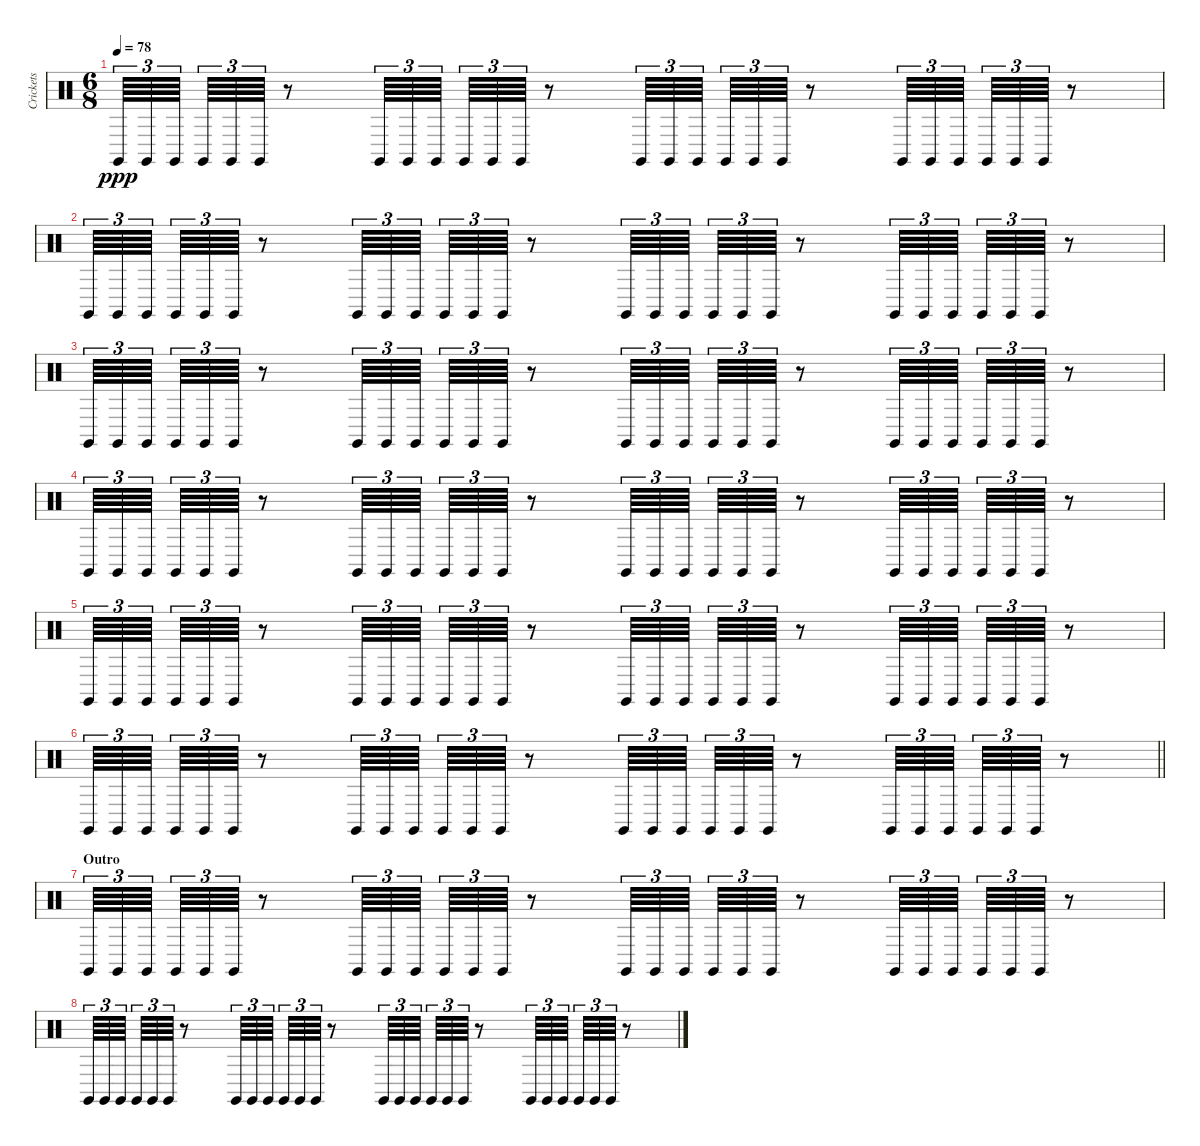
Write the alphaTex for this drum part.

\track ("Crickets" "Crickets") {instrument percussion}
\staff {score}
\articulation defaults
\ts (6 8)
\tempo 78
\clef neutral
\ks c "Claves (hit)".64{tu (3 2) dy ppp} "Claves (hit)".64{tu (3 2)} "Claves (hit)".64{tu (3 2) beam splitsecondary} "Claves (hit)".64{tu (3 2)} "Claves (hit)".64{tu (3 2)} "Claves (hit)".64{tu (3 2)}
r.8 "Claves (hit)".64{tu (3 2)} "Claves (hit)".64{tu (3 2)} "Claves (hit)".64{tu (3 2) beam splitsecondary} "Claves (hit)".64{tu (3 2)} "Claves (hit)".64{tu (3 2)} "Claves (hit)".64{tu (3 2)} r.8 "Claves (hit)".64{tu (3 2)} "Claves (hit)".64{tu (3 2)} "Claves (hit)".64{tu (3 2) beam splitsecondary} "Claves (hit)".64{tu (3 2)} "Claves (hit)".64{tu (3 2)} "Claves (hit)".64{tu (3 2)} r.8 "Claves (hit)".64{tu (3 2)} "Claves (hit)".64{tu (3 2)} "Claves (hit)".64{tu (3 2) beam splitsecondary} "Claves (hit)".64{tu (3 2)} "Claves (hit)".64{tu (3 2)} "Claves (hit)".64{tu (3 2)} r.8 |
"Claves (hit)".64{tu (3 2)} "Claves (hit)".64{tu (3 2)} "Claves (hit)".64{tu (3 2) beam splitsecondary} "Claves (hit)".64{tu (3 2)} "Claves (hit)".64{tu (3 2)} "Claves (hit)".64{tu (3 2)} r.8 "Claves (hit)".64{tu (3 2)} "Claves (hit)".64{tu (3 2)} "Claves (hit)".64{tu (3 2) beam splitsecondary} "Claves (hit)".64{tu (3 2)} "Claves (hit)".64{tu (3 2)} "Claves (hit)".64{tu (3 2)} r.8 "Claves (hit)".64{tu (3 2)} "Claves (hit)".64{tu (3 2)} "Claves (hit)".64{tu (3 2) beam splitsecondary} "Claves (hit)".64{tu (3 2)} "Claves (hit)".64{tu (3 2)} "Claves (hit)".64{tu (3 2)} r.8 "Claves (hit)".64{tu (3 2)} "Claves (hit)".64{tu (3 2)} "Claves (hit)".64{tu (3 2) beam splitsecondary} "Claves (hit)".64{tu (3 2)} "Claves (hit)".64{tu (3 2)} "Claves (hit)".64{tu (3 2)} r.8 |
"Claves (hit)".64{tu (3 2)} "Claves (hit)".64{tu (3 2)} "Claves (hit)".64{tu (3 2) beam splitsecondary} "Claves (hit)".64{tu (3 2)} "Claves (hit)".64{tu (3 2)} "Claves (hit)".64{tu (3 2)} r.8 "Claves (hit)".64{tu (3 2)} "Claves (hit)".64{tu (3 2)} "Claves (hit)".64{tu (3 2) beam splitsecondary} "Claves (hit)".64{tu (3 2)} "Claves (hit)".64{tu (3 2)} "Claves (hit)".64{tu (3 2)} r.8 "Claves (hit)".64{tu (3 2)} "Claves (hit)".64{tu (3 2)} "Claves (hit)".64{tu (3 2) beam splitsecondary} "Claves (hit)".64{tu (3 2)} "Claves (hit)".64{tu (3 2)} "Claves (hit)".64{tu (3 2)} r.8 "Claves (hit)".64{tu (3 2)} "Claves (hit)".64{tu (3 2)} "Claves (hit)".64{tu (3 2) beam splitsecondary} "Claves (hit)".64{tu (3 2)} "Claves (hit)".64{tu (3 2)} "Claves (hit)".64{tu (3 2)} r.8 |
"Claves (hit)".64{tu (3 2)} "Claves (hit)".64{tu (3 2)} "Claves (hit)".64{tu (3 2) beam splitsecondary} "Claves (hit)".64{tu (3 2)} "Claves (hit)".64{tu (3 2)} "Claves (hit)".64{tu (3 2)} r.8 "Claves (hit)".64{tu (3 2)} "Claves (hit)".64{tu (3 2)} "Claves (hit)".64{tu (3 2) beam splitsecondary} "Claves (hit)".64{tu (3 2)} "Claves (hit)".64{tu (3 2)} "Claves (hit)".64{tu (3 2)} r.8 "Claves (hit)".64{tu (3 2)} "Claves (hit)".64{tu (3 2)} "Claves (hit)".64{tu (3 2) beam splitsecondary} "Claves (hit)".64{tu (3 2)} "Claves (hit)".64{tu (3 2)} "Claves (hit)".64{tu (3 2)} r.8 "Claves (hit)".64{tu (3 2)} "Claves (hit)".64{tu (3 2)} "Claves (hit)".64{tu (3 2) beam splitsecondary} "Claves (hit)".64{tu (3 2)} "Claves (hit)".64{tu (3 2)} "Claves (hit)".64{tu (3 2)} r.8 |
"Claves (hit)".64{tu (3 2)} "Claves (hit)".64{tu (3 2)} "Claves (hit)".64{tu (3 2) beam splitsecondary} "Claves (hit)".64{tu (3 2)} "Claves (hit)".64{tu (3 2)} "Claves (hit)".64{tu (3 2)} r.8 "Claves (hit)".64{tu (3 2)} "Claves (hit)".64{tu (3 2)} "Claves (hit)".64{tu (3 2) beam splitsecondary} "Claves (hit)".64{tu (3 2)} "Claves (hit)".64{tu (3 2)} "Claves (hit)".64{tu (3 2)} r.8 "Claves (hit)".64{tu (3 2)} "Claves (hit)".64{tu (3 2)} "Claves (hit)".64{tu (3 2) beam splitsecondary} "Claves (hit)".64{tu (3 2)} "Claves (hit)".64{tu (3 2)} "Claves (hit)".64{tu (3 2)} r.8 "Claves (hit)".64{tu (3 2)} "Claves (hit)".64{tu (3 2)} "Claves (hit)".64{tu (3 2) beam splitsecondary} "Claves (hit)".64{tu (3 2)} "Claves (hit)".64{tu (3 2)} "Claves (hit)".64{tu (3 2)} r.8 |
\barLineRight lightlight "Claves (hit)".64{tu (3 2)} "Claves (hit)".64{tu (3 2)} "Claves (hit)".64{tu (3 2) beam splitsecondary} "Claves (hit)".64{tu (3 2)} "Claves (hit)".64{tu (3 2)} "Claves (hit)".64{tu (3 2)}
r.8 "Claves (hit)".64{tu (3 2)} "Claves (hit)".64{tu (3 2)} "Claves (hit)".64{tu (3 2) beam splitsecondary} "Claves (hit)".64{tu (3 2)} "Claves (hit)".64{tu (3 2)} "Claves (hit)".64{tu (3 2)} r.8 "Claves (hit)".64{tu (3 2)} "Claves (hit)".64{tu (3 2)} "Claves (hit)".64{tu (3 2) beam splitsecondary} "Claves (hit)".64{tu (3 2)} "Claves (hit)".64{tu (3 2)} "Claves (hit)".64{tu (3 2)} r.8 "Claves (hit)".64{tu (3 2)} "Claves (hit)".64{tu (3 2)} "Claves (hit)".64{tu (3 2) beam splitsecondary} "Claves (hit)".64{tu (3 2)} "Claves (hit)".64{tu (3 2)} "Claves (hit)".64{tu (3 2)} r.8 |
\section ("" "Outro")
"Claves (hit)".64{tu (3 2)} "Claves (hit)".64{tu (3 2)} "Claves (hit)".64{tu (3 2) beam splitsecondary} "Claves (hit)".64{tu (3 2)} "Claves (hit)".64{tu (3 2)} "Claves (hit)".64{tu (3 2)} r.8 "Claves (hit)".64{tu (3 2)} "Claves (hit)".64{tu (3 2)} "Claves (hit)".64{tu (3 2) beam splitsecondary} "Claves (hit)".64{tu (3 2)} "Claves (hit)".64{tu (3 2)} "Claves (hit)".64{tu (3 2)} r.8 "Claves (hit)".64{tu (3 2)} "Claves (hit)".64{tu (3 2)} "Claves (hit)".64{tu (3 2) beam splitsecondary} "Claves (hit)".64{tu (3 2)} "Claves (hit)".64{tu (3 2)} "Claves (hit)".64{tu (3 2)} r.8 "Claves (hit)".64{tu (3 2)} "Claves (hit)".64{tu (3 2)} "Claves (hit)".64{tu (3 2) beam splitsecondary} "Claves (hit)".64{tu (3 2)} "Claves (hit)".64{tu (3 2)} "Claves (hit)".64{tu (3 2)} r.8 |
"Claves (hit)".64{tu (3 2)} "Claves (hit)".64{tu (3 2)} "Claves (hit)".64{tu (3 2) beam splitsecondary} "Claves (hit)".64{tu (3 2)} "Claves (hit)".64{tu (3 2)} "Claves (hit)".64{tu (3 2)} r.8 "Claves (hit)".64{tu (3 2)} "Claves (hit)".64{tu (3 2)} "Claves (hit)".64{tu (3 2) beam splitsecondary} "Claves (hit)".64{tu (3 2)} "Claves (hit)".64{tu (3 2)} "Claves (hit)".64{tu (3 2)} r.8 "Claves (hit)".64{tu (3 2)} "Claves (hit)".64{tu (3 2)} "Claves (hit)".64{tu (3 2) beam splitsecondary} "Claves (hit)".64{tu (3 2)} "Claves (hit)".64{tu (3 2)} "Claves (hit)".64{tu (3 2)} r.8 "Claves (hit)".64{tu (3 2)} "Claves (hit)".64{tu (3 2)} "Claves (hit)".64{tu (3 2) beam splitsecondary} "Claves (hit)".64{tu (3 2)} "Claves (hit)".64{tu (3 2)} "Claves (hit)".64{tu (3 2)} r.8
